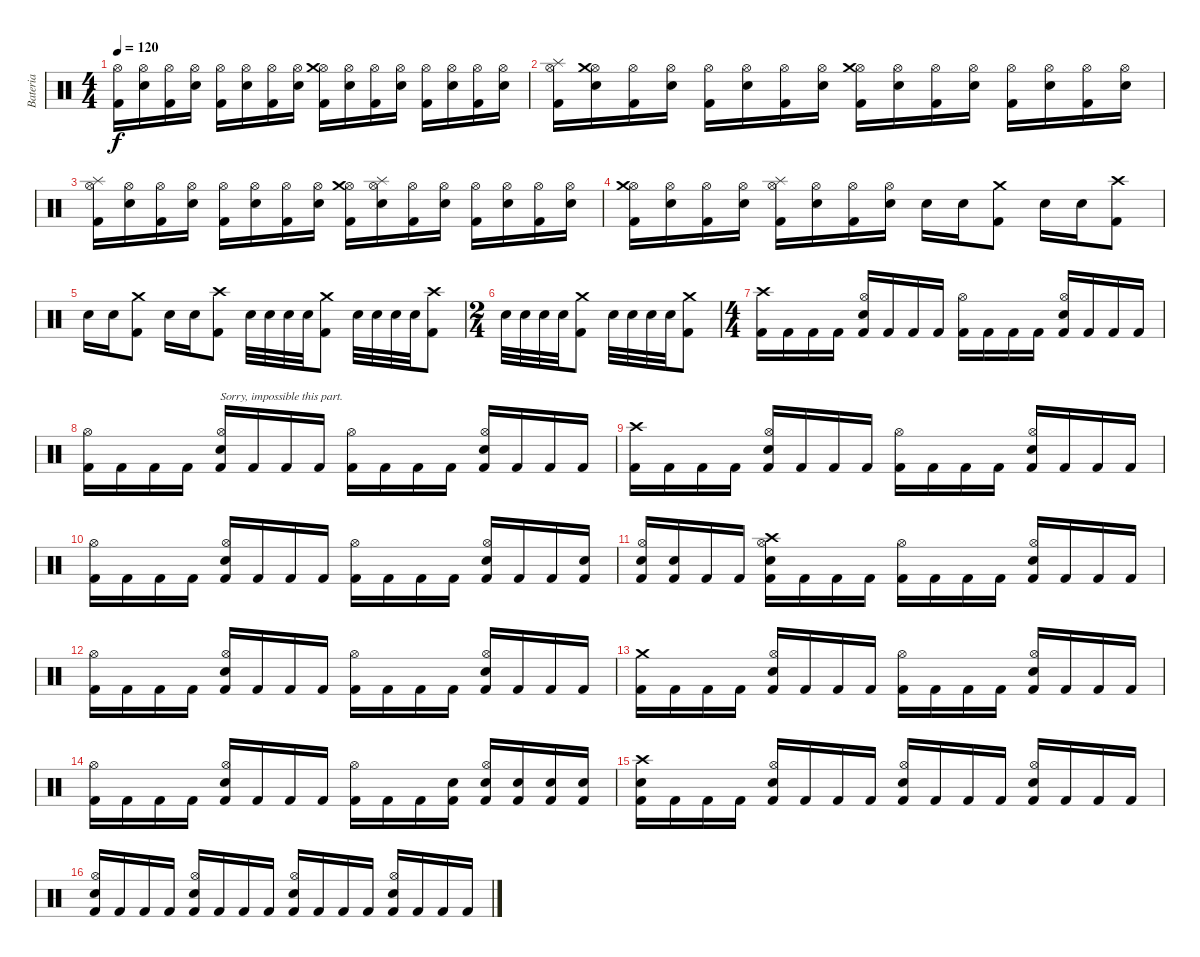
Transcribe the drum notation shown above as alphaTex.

\track ("Bateria" "Bateria") {instrument percussion}
\staff {score}
\articulation defaults
\ts (4 4)
\tempo 120
\clef neutral
\ks c
("Kick (hit) 2" "Hi-Hat (open)").16{dy f} ("Electric Snare (hit)" "Hi-Hat (open)").16 ("Kick (hit) 2" "Hi-Hat (open)").16 ("Electric Snare (hit)" "Hi-Hat (open)").16 ("Kick (hit) 2" "Hi-Hat (open)").16 ("Electric Snare (hit)" "Hi-Hat (open)").16 ("Kick (hit) 2" "Hi-Hat (open)").16 ("Electric Snare (hit)" "Hi-Hat (open)").16 ("Kick (hit) 2" "Hi-Hat (open)" "Crash medium (hit)").16 ("Electric Snare (hit)" "Hi-Hat (open)").16 ("Kick (hit) 2" "Hi-Hat (open)").16 ("Electric Snare (hit)" "Hi-Hat (open)").16 ("Kick (hit) 2" "Hi-Hat (open)").16 ("Electric Snare (hit)" "Hi-Hat (open)").16 ("Kick (hit) 2" "Hi-Hat (open)").16 ("Electric Snare (hit)" "Hi-Hat (open)").16 |
("Kick (hit) 2" "Hi-Hat (open)" "Splash (hit)").16 ("Electric Snare (hit)" "Hi-Hat (open)" "Crash medium (hit)").16 ("Kick (hit) 2" "Hi-Hat (open)").16 ("Electric Snare (hit)" "Hi-Hat (open)").16 ("Kick (hit) 2" "Hi-Hat (open)").16 ("Electric Snare (hit)" "Hi-Hat (open)").16 ("Kick (hit) 2" "Hi-Hat (open)").16 ("Electric Snare (hit)" "Hi-Hat (open)").16 ("Kick (hit) 2" "Hi-Hat (open)" "Crash medium (hit)").16 ("Electric Snare (hit)" "Hi-Hat (open)").16 ("Kick (hit) 2" "Hi-Hat (open)").16 ("Electric Snare (hit)" "Hi-Hat (open)").16 ("Kick (hit) 2" "Hi-Hat (open)").16 ("Electric Snare (hit)" "Hi-Hat (open)").16 ("Kick (hit) 2" "Hi-Hat (open)").16 ("Electric Snare (hit)" "Hi-Hat (open)").16 |
("Kick (hit) 2" "Hi-Hat (open)" "Splash (hit)").16 ("Electric Snare (hit)" "Hi-Hat (open)").16 ("Kick (hit) 2" "Hi-Hat (open)").16 ("Electric Snare (hit)" "Hi-Hat (open)").16 ("Kick (hit) 2" "Hi-Hat (open)").16 ("Electric Snare (hit)" "Hi-Hat (open)").16 ("Kick (hit) 2" "Hi-Hat (open)").16 ("Electric Snare (hit)" "Hi-Hat (open)").16 ("Kick (hit) 2" "Hi-Hat (open)" "Crash medium (hit)").16 ("Electric Snare (hit)" "Hi-Hat (open)" "Splash (hit)").16 ("Kick (hit) 2" "Hi-Hat (open)").16 ("Electric Snare (hit)" "Hi-Hat (open)").16 ("Kick (hit) 2" "Hi-Hat (open)").16 ("Electric Snare (hit)" "Hi-Hat (open)").16 ("Kick (hit) 2" "Hi-Hat (open)").16 ("Electric Snare (hit)" "Hi-Hat (open)").16 |
("Kick (hit) 2" "Hi-Hat (open)" "Crash medium (hit)").16 ("Electric Snare (hit)" "Hi-Hat (open)").16 ("Kick (hit) 2" "Hi-Hat (open)").16 ("Electric Snare (hit)" "Hi-Hat (open)").16 ("Kick (hit) 2" "Hi-Hat (open)" "Splash (hit)").16 ("Electric Snare (hit)" "Hi-Hat (open)").16 ("Kick (hit) 2" "Hi-Hat (open)").16 ("Electric Snare (hit)" "Hi-Hat (open)").16 "Electric Snare (hit)".16 "Electric Snare (hit)".16 ("Kick (hit) 2" "Crash medium (hit)").8 "Electric Snare (hit)".16 "Electric Snare (hit)".16 ("Kick (hit) 2" "Crash high (hit)").8 |
"Electric Snare (hit)".16 "Electric Snare (hit)".16 ("Kick (hit) 2" "Crash medium (hit)").8 "Electric Snare (hit)".16 "Electric Snare (hit)".16 ("Kick (hit) 2" "Crash high (hit)").8 "Electric Snare (hit)".32 "Electric Snare (hit)".32 "Electric Snare (hit)".32 "Electric Snare (hit)".32 ("Kick (hit) 2" "Crash medium (hit)").8 "Electric Snare (hit)".32 "Electric Snare (hit)".32 "Electric Snare (hit)".32 "Electric Snare (hit)".32 ("Kick (hit) 2" "Crash high (hit)").8 |
\ts (2 4)
"Electric Snare (hit)".32 "Electric Snare (hit)".32 "Electric Snare (hit)".32 "Electric Snare (hit)".32 ("Kick (hit) 2" "Crash medium (hit)").8 "Electric Snare (hit)".32 "Electric Snare (hit)".32 "Electric Snare (hit)".32 "Electric Snare (hit)".32 ("Kick (hit) 2" "Crash medium (hit)").8 |
\ts (4 4)
("Kick (hit) 2" "Crash high (hit)").16 "Kick (hit) 2".16 "Kick (hit) 2".16 "Kick (hit) 2".16 ("Kick (hit) 2" "Electric Snare (hit)" "Hi-Hat (open)").16 "Kick (hit) 2".16 "Kick (hit) 2".16 "Kick (hit) 2".16 ("Kick (hit) 2" "Hi-Hat (open)").16 "Kick (hit) 2".16 "Kick (hit) 2".16 "Kick (hit) 2".16 ("Kick (hit) 2" "Electric Snare (hit)" "Hi-Hat (open)").16 "Kick (hit) 2".16 "Kick (hit) 2".16 "Kick (hit) 2".16 |
("Kick (hit) 2" "Hi-Hat (open)").16 "Kick (hit) 2".16 "Kick (hit) 2".16 "Kick (hit) 2".16 ("Kick (hit) 2" "Electric Snare (hit)" "Hi-Hat (open)").16{txt "Sorry, impossible this part."} "Kick (hit) 2".16 "Kick (hit) 2".16 "Kick (hit) 2".16 ("Kick (hit) 2" "Hi-Hat (open)").16 "Kick (hit) 2".16 "Kick (hit) 2".16 "Kick (hit) 2".16 ("Kick (hit) 2" "Electric Snare (hit)" "Hi-Hat (open)").16 "Kick (hit) 2".16 "Kick (hit) 2".16 "Kick (hit) 2".16 |
("Kick (hit) 2" "Crash high (hit)").16 "Kick (hit) 2".16 "Kick (hit) 2".16 "Kick (hit) 2".16 ("Kick (hit) 2" "Electric Snare (hit)" "Hi-Hat (open)").16 "Kick (hit) 2".16 "Kick (hit) 2".16 "Kick (hit) 2".16 ("Kick (hit) 2" "Hi-Hat (open)").16 "Kick (hit) 2".16 "Kick (hit) 2".16 "Kick (hit) 2".16 ("Kick (hit) 2" "Electric Snare (hit)" "Hi-Hat (open)").16 "Kick (hit) 2".16 "Kick (hit) 2".16 "Kick (hit) 2".16 |
("Kick (hit) 2" "Hi-Hat (open)").16 "Kick (hit) 2".16 "Kick (hit) 2".16 "Kick (hit) 2".16 ("Kick (hit) 2" "Electric Snare (hit)" "Hi-Hat (open)").16 "Kick (hit) 2".16 "Kick (hit) 2".16 "Kick (hit) 2".16 ("Kick (hit) 2" "Hi-Hat (open)").16 "Kick (hit) 2".16 "Kick (hit) 2".16 "Kick (hit) 2".16 ("Kick (hit) 2" "Electric Snare (hit)" "Hi-Hat (open)").16 "Kick (hit) 2".16 "Kick (hit) 2".16 ("Kick (hit) 2" "Electric Snare (hit)").16 |
("Kick (hit) 2" "Electric Snare (hit)" "Hi-Hat (open)").16 ("Kick (hit) 2" "Electric Snare (hit)").16 "Kick (hit) 2".16 "Kick (hit) 2".16 ("Kick (hit) 2" "Electric Snare (hit)" "Hi-Hat (open)" "Crash high (hit)").16 "Kick (hit) 2".16 "Kick (hit) 2".16 "Kick (hit) 2".16 ("Kick (hit) 2" "Hi-Hat (open)").16 "Kick (hit) 2".16 "Kick (hit) 2".16 "Kick (hit) 2".16 ("Kick (hit) 2" "Electric Snare (hit)" "Hi-Hat (open)").16 "Kick (hit) 2".16 "Kick (hit) 2".16 "Kick (hit) 2".16 |
("Kick (hit) 2" "Hi-Hat (open)").16 "Kick (hit) 2".16 "Kick (hit) 2".16 "Kick (hit) 2".16 ("Kick (hit) 2" "Electric Snare (hit)" "Hi-Hat (open)").16 "Kick (hit) 2".16 "Kick (hit) 2".16 "Kick (hit) 2".16 ("Kick (hit) 2" "Hi-Hat (open)").16 "Kick (hit) 2".16 "Kick (hit) 2".16 "Kick (hit) 2".16 ("Kick (hit) 2" "Electric Snare (hit)" "Hi-Hat (open)").16 "Kick (hit) 2".16 "Kick (hit) 2".16 "Kick (hit) 2".16 |
("Kick (hit) 2" "Crash medium (hit)").16 "Kick (hit) 2".16 "Kick (hit) 2".16 "Kick (hit) 2".16 ("Kick (hit) 2" "Electric Snare (hit)" "Hi-Hat (open)").16 "Kick (hit) 2".16 "Kick (hit) 2".16 "Kick (hit) 2".16 ("Kick (hit) 2" "Hi-Hat (open)").16 "Kick (hit) 2".16 "Kick (hit) 2".16 "Kick (hit) 2".16 ("Kick (hit) 2" "Electric Snare (hit)" "Hi-Hat (open)").16 "Kick (hit) 2".16 "Kick (hit) 2".16 "Kick (hit) 2".16 |
("Kick (hit) 2" "Hi-Hat (open)").16 "Kick (hit) 2".16 "Kick (hit) 2".16 "Kick (hit) 2".16 ("Kick (hit) 2" "Electric Snare (hit)" "Hi-Hat (open)").16 "Kick (hit) 2".16 "Kick (hit) 2".16 "Kick (hit) 2".16 ("Kick (hit) 2" "Hi-Hat (open)").16 "Kick (hit) 2".16 "Kick (hit) 2".16 ("Kick (hit) 2" "Electric Snare (hit)").16 ("Kick (hit) 2" "Electric Snare (hit)" "Hi-Hat (open)").16 ("Kick (hit) 2" "Electric Snare (hit)").16 ("Kick (hit) 2" "Electric Snare (hit)").16 ("Kick (hit) 2" "Electric Snare (hit)").16 |
("Kick (hit) 2" "Electric Snare (hit)" "Crash high (hit)").16 "Kick (hit) 2".16 "Kick (hit) 2".16 "Kick (hit) 2".16 ("Kick (hit) 2" "Electric Snare (hit)" "Hi-Hat (open)").16 "Kick (hit) 2".16 "Kick (hit) 2".16 "Kick (hit) 2".16 ("Kick (hit) 2" "Electric Snare (hit)" "Hi-Hat (open)").16 "Kick (hit) 2".16 "Kick (hit) 2".16 "Kick (hit) 2".16 ("Kick (hit) 2" "Electric Snare (hit)" "Hi-Hat (open)").16 "Kick (hit) 2".16 "Kick (hit) 2".16 "Kick (hit) 2".16 |
("Kick (hit) 2" "Electric Snare (hit)" "Hi-Hat (open)").16 "Kick (hit) 2".16 "Kick (hit) 2".16 "Kick (hit) 2".16 ("Kick (hit) 2" "Electric Snare (hit)" "Hi-Hat (open)").16 "Kick (hit) 2".16 "Kick (hit) 2".16 "Kick (hit) 2".16 ("Kick (hit) 2" "Electric Snare (hit)" "Hi-Hat (open)").16 "Kick (hit) 2".16 "Kick (hit) 2".16 "Kick (hit) 2".16 ("Kick (hit) 2" "Electric Snare (hit)" "Hi-Hat (open)").16 "Kick (hit) 2".16 "Kick (hit) 2".16 "Kick (hit) 2".16
